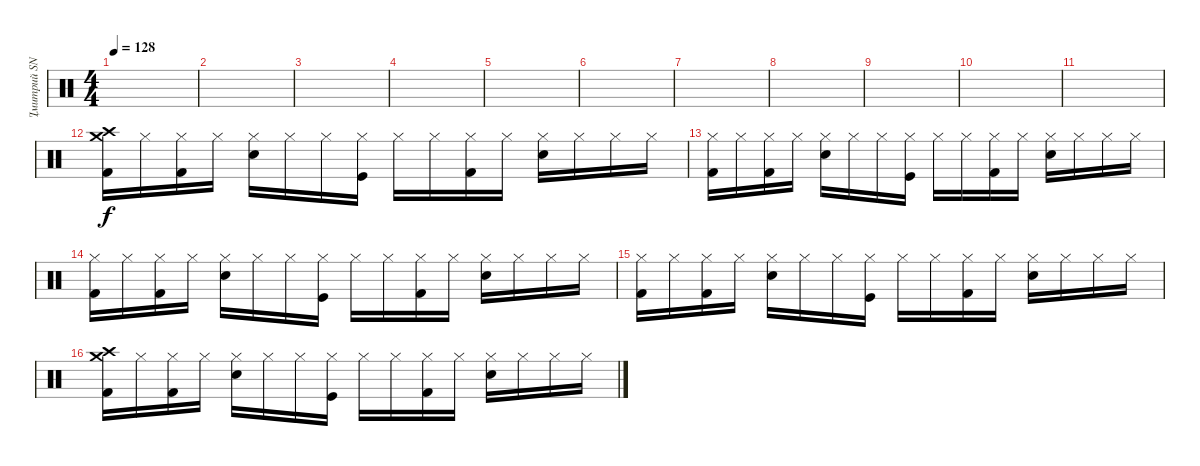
\track ("Дмитрий SNAKE Хакимов (ударные)" "Дмитрий SN") {instrument percussion}
\staff {score}
\articulation defaults
\ts (4 4)
\tempo 128
\clef neutral
\ks c
|
|
|
|
|
|
|
|
|
|
|
("Crash high (hit)" "Crash medium (hit)" "Kick (hit) 2").16 "Hi-Hat (closed)".16 ("Hi-Hat (closed)" "Kick (hit) 2").16 "Hi-Hat (closed)".16 ("Hi-Hat (closed)" "Snare (hit) 2").16 "Hi-Hat (closed)".16 "Hi-Hat (closed)".16 ("Hi-Hat (closed)" "Kick (hit)").16 "Hi-Hat (closed)".16 "Hi-Hat (closed)".16 ("Hi-Hat (closed)" "Kick (hit) 2").16 "Hi-Hat (closed)".16 ("Hi-Hat (closed)" "Snare (hit) 2").16 "Hi-Hat (closed)".16 "Hi-Hat (closed)".16 "Hi-Hat (closed)".16 |
("Hi-Hat (closed)" "Kick (hit) 2").16 "Hi-Hat (closed)".16 ("Hi-Hat (closed)" "Kick (hit) 2").16 "Hi-Hat (closed)".16 ("Hi-Hat (closed)" "Snare (hit) 2").16 "Hi-Hat (closed)".16 "Hi-Hat (closed)".16 ("Hi-Hat (closed)" "Kick (hit)").16 "Hi-Hat (closed)".16 "Hi-Hat (closed)".16 ("Hi-Hat (closed)" "Kick (hit) 2").16 "Hi-Hat (closed)".16 ("Hi-Hat (closed)" "Snare (hit) 2").16 "Hi-Hat (closed)".16 "Hi-Hat (closed)".16 "Hi-Hat (closed)".16 |
("Hi-Hat (closed)" "Kick (hit) 2").16 "Hi-Hat (closed)".16 ("Hi-Hat (closed)" "Kick (hit) 2").16 "Hi-Hat (closed)".16 ("Hi-Hat (closed)" "Snare (hit) 2").16 "Hi-Hat (closed)".16 "Hi-Hat (closed)".16 ("Hi-Hat (closed)" "Kick (hit)").16 "Hi-Hat (closed)".16 "Hi-Hat (closed)".16 ("Hi-Hat (closed)" "Kick (hit) 2").16 "Hi-Hat (closed)".16 ("Hi-Hat (closed)" "Snare (hit) 2").16 "Hi-Hat (closed)".16 "Hi-Hat (closed)".16 "Hi-Hat (closed)".16 |
("Hi-Hat (closed)" "Kick (hit) 2").16 "Hi-Hat (closed)".16 ("Hi-Hat (closed)" "Kick (hit) 2").16 "Hi-Hat (closed)".16 ("Hi-Hat (closed)" "Snare (hit) 2").16 "Hi-Hat (closed)".16 "Hi-Hat (closed)".16 ("Hi-Hat (closed)" "Kick (hit)").16 "Hi-Hat (closed)".16 "Hi-Hat (closed)".16 ("Hi-Hat (closed)" "Kick (hit) 2").16 "Hi-Hat (closed)".16 ("Hi-Hat (closed)" "Snare (hit) 2").16 "Hi-Hat (closed)".16 "Hi-Hat (closed)".16 "Hi-Hat (closed)".16 |
("Crash high (hit)" "Crash medium (hit)" "Kick (hit) 2").16 "Hi-Hat (closed)".16 ("Hi-Hat (closed)" "Kick (hit) 2").16 "Hi-Hat (closed)".16 ("Hi-Hat (closed)" "Snare (hit) 2").16 "Hi-Hat (closed)".16 "Hi-Hat (closed)".16 ("Hi-Hat (closed)" "Kick (hit)").16 "Hi-Hat (closed)".16 "Hi-Hat (closed)".16 ("Hi-Hat (closed)" "Kick (hit) 2").16 "Hi-Hat (closed)".16 ("Hi-Hat (closed)" "Snare (hit) 2").16 "Hi-Hat (closed)".16 "Hi-Hat (closed)".16 "Hi-Hat (closed)".16
